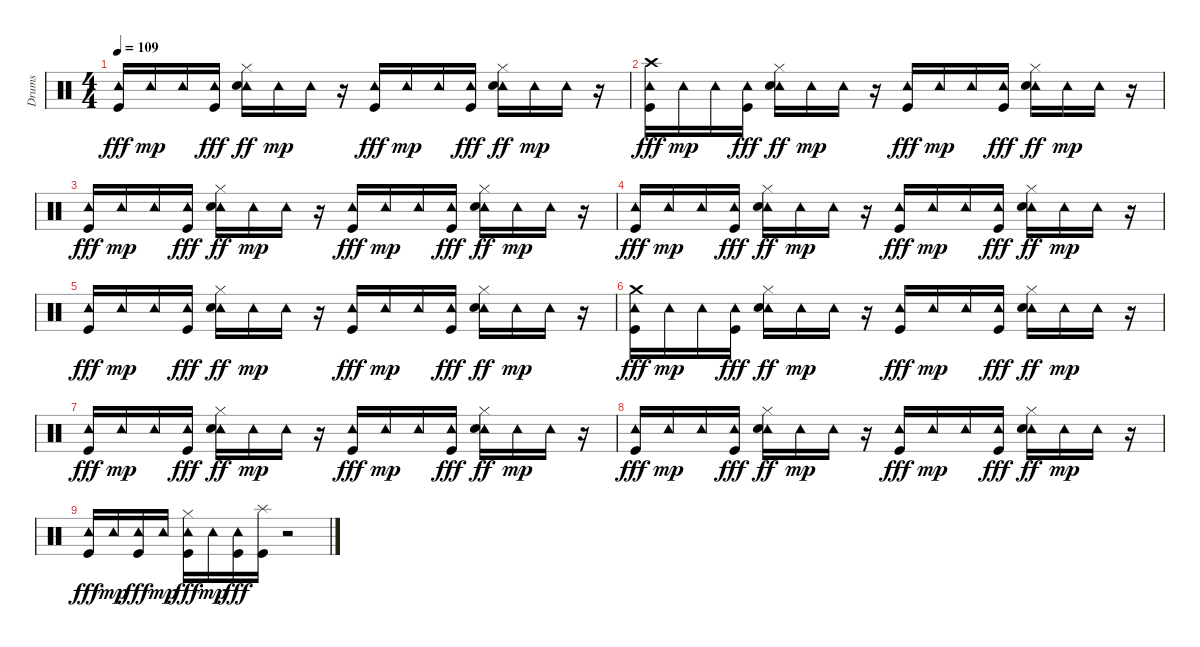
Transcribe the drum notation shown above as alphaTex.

\track ("Drums" "Drums") {instrument percussion}
\staff {score}
\articulation defaults
\ts (4 4)
\tempo 109
\clef neutral
\ks c
("Tambourine (hit)" "Kick (hit)").16{dy fff} "Tambourine (hit)".16{dy mp} "Tambourine (hit)".16 ("Tambourine (hit)" "Kick (hit)").16{dy fff} ("Tambourine (hit)" "Hi-Hat (closed)" "Electric Snare (hit)").16{dy ff} "Tambourine (hit)".16{dy mp} "Tambourine (hit)".16 r.16 ("Tambourine (hit)" "Kick (hit)").16{dy fff} "Tambourine (hit)".16{dy mp} "Tambourine (hit)".16 ("Tambourine (hit)" "Kick (hit)").16{dy fff} ("Tambourine (hit)" "Hi-Hat (closed)" "Electric Snare (hit)").16{dy ff} "Tambourine (hit)".16{dy mp} "Tambourine (hit)".16 r.16 |
("Crash high (hit)" "Tambourine (hit)" "Kick (hit)").16{dy fff} "Tambourine (hit)".16{dy mp} "Tambourine (hit)".16 ("Tambourine (hit)" "Kick (hit)").16{dy fff} ("Tambourine (hit)" "Hi-Hat (closed)" "Electric Snare (hit)").16{dy ff} "Tambourine (hit)".16{dy mp} "Tambourine (hit)".16 r.16 ("Tambourine (hit)" "Kick (hit)").16{dy fff} "Tambourine (hit)".16{dy mp} "Tambourine (hit)".16 ("Tambourine (hit)" "Kick (hit)").16{dy fff} ("Tambourine (hit)" "Hi-Hat (closed)" "Electric Snare (hit)").16{dy ff} "Tambourine (hit)".16{dy mp} "Tambourine (hit)".16 r.16 |
("Tambourine (hit)" "Kick (hit)").16{dy fff} "Tambourine (hit)".16{dy mp} "Tambourine (hit)".16 ("Tambourine (hit)" "Kick (hit)").16{dy fff} ("Tambourine (hit)" "Hi-Hat (closed)" "Electric Snare (hit)").16{dy ff} "Tambourine (hit)".16{dy mp} "Tambourine (hit)".16 r.16 ("Tambourine (hit)" "Kick (hit)").16{dy fff} "Tambourine (hit)".16{dy mp} "Tambourine (hit)".16 ("Tambourine (hit)" "Kick (hit)").16{dy fff} ("Tambourine (hit)" "Hi-Hat (closed)" "Electric Snare (hit)").16{dy ff} "Tambourine (hit)".16{dy mp} "Tambourine (hit)".16 r.16 |
("Tambourine (hit)" "Kick (hit)").16{dy fff} "Tambourine (hit)".16{dy mp} "Tambourine (hit)".16 ("Tambourine (hit)" "Kick (hit)").16{dy fff} ("Tambourine (hit)" "Hi-Hat (closed)" "Electric Snare (hit)").16{dy ff} "Tambourine (hit)".16{dy mp} "Tambourine (hit)".16 r.16 ("Tambourine (hit)" "Kick (hit)").16{dy fff} "Tambourine (hit)".16{dy mp} "Tambourine (hit)".16 ("Tambourine (hit)" "Kick (hit)").16{dy fff} ("Tambourine (hit)" "Hi-Hat (closed)" "Electric Snare (hit)").16{dy ff} "Tambourine (hit)".16{dy mp} "Tambourine (hit)".16 r.16 |
("Tambourine (hit)" "Kick (hit)").16{dy fff} "Tambourine (hit)".16{dy mp} "Tambourine (hit)".16 ("Tambourine (hit)" "Kick (hit)").16{dy fff} ("Tambourine (hit)" "Hi-Hat (closed)" "Electric Snare (hit)").16{dy ff} "Tambourine (hit)".16{dy mp} "Tambourine (hit)".16 r.16 ("Tambourine (hit)" "Kick (hit)").16{dy fff} "Tambourine (hit)".16{dy mp} "Tambourine (hit)".16 ("Tambourine (hit)" "Kick (hit)").16{dy fff} ("Tambourine (hit)" "Hi-Hat (closed)" "Electric Snare (hit)").16{dy ff} "Tambourine (hit)".16{dy mp} "Tambourine (hit)".16 r.16 |
("Crash medium (hit)" "Tambourine (hit)" "Kick (hit)").16{dy fff} "Tambourine (hit)".16{dy mp} "Tambourine (hit)".16 ("Tambourine (hit)" "Kick (hit)").16{dy fff} ("Tambourine (hit)" "Hi-Hat (closed)" "Electric Snare (hit)").16{dy ff} "Tambourine (hit)".16{dy mp} "Tambourine (hit)".16 r.16 ("Tambourine (hit)" "Kick (hit)").16{dy fff} "Tambourine (hit)".16{dy mp} "Tambourine (hit)".16 ("Tambourine (hit)" "Kick (hit)").16{dy fff} ("Tambourine (hit)" "Hi-Hat (closed)" "Electric Snare (hit)").16{dy ff} "Tambourine (hit)".16{dy mp} "Tambourine (hit)".16 r.16 |
("Tambourine (hit)" "Kick (hit)").16{dy fff} "Tambourine (hit)".16{dy mp} "Tambourine (hit)".16 ("Tambourine (hit)" "Kick (hit)").16{dy fff} ("Tambourine (hit)" "Hi-Hat (closed)" "Electric Snare (hit)").16{dy ff} "Tambourine (hit)".16{dy mp} "Tambourine (hit)".16 r.16 ("Tambourine (hit)" "Kick (hit)").16{dy fff} "Tambourine (hit)".16{dy mp} "Tambourine (hit)".16 ("Tambourine (hit)" "Kick (hit)").16{dy fff} ("Tambourine (hit)" "Hi-Hat (closed)" "Electric Snare (hit)").16{dy ff} "Tambourine (hit)".16{dy mp} "Tambourine (hit)".16 r.16 |
("Tambourine (hit)" "Kick (hit)").16{dy fff} "Tambourine (hit)".16{dy mp} "Tambourine (hit)".16 ("Tambourine (hit)" "Kick (hit)").16{dy fff} ("Tambourine (hit)" "Hi-Hat (closed)" "Electric Snare (hit)").16{dy ff} "Tambourine (hit)".16{dy mp} "Tambourine (hit)".16 r.16 ("Tambourine (hit)" "Kick (hit)").16{dy fff} "Tambourine (hit)".16{dy mp} "Tambourine (hit)".16 ("Tambourine (hit)" "Kick (hit)").16{dy fff} ("Tambourine (hit)" "Hi-Hat (closed)" "Electric Snare (hit)").16{dy ff} "Tambourine (hit)".16{dy mp} "Tambourine (hit)".16 r.16 |
("Tambourine (hit)" "Kick (hit)").16{dy fff} "Tambourine (hit)".16{dy mp} ("Tambourine (hit)" "Kick (hit)").16{dy fff} "Tambourine (hit)".16{dy mp} ("Tambourine (hit)" "Hi-Hat (closed)" "Kick (hit)").16{dy fff} "Tambourine (hit)".16{dy mp} ("Tambourine (hit)" "Kick (hit)").16{dy fff} ("Splash (hit)" "Kick (hit)").16 r.2
